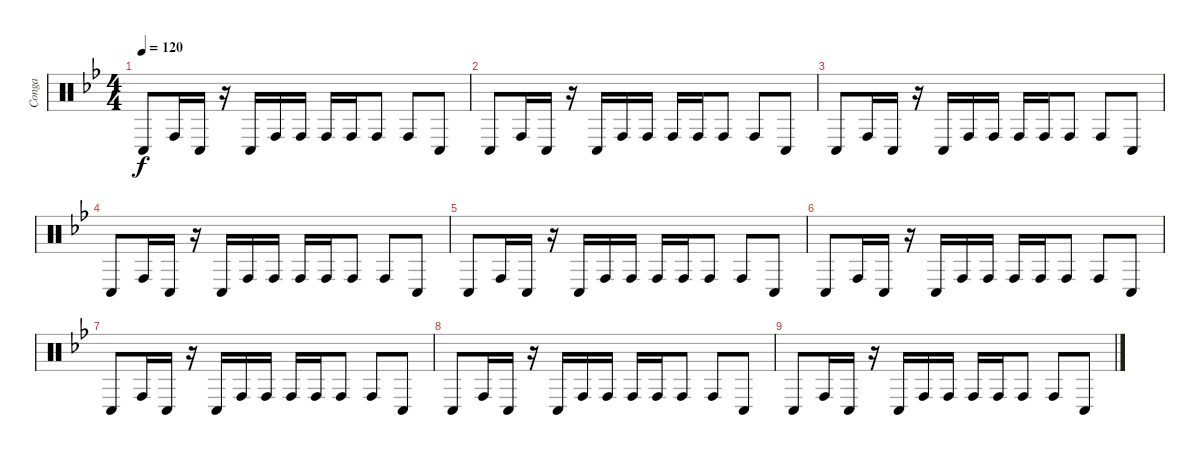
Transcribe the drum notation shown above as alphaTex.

\track ("Conga" "Conga") {instrument percussion}
\staff {score}
\articulation defaults
\ts (4 4)
\tempo 120
\clef neutral
\ks bb "Conga low (hit)".8{dy f} "Conga high (hit)".16 "Conga low (hit)".16
r.16 "Conga low (hit)".16 "Conga high (hit)".16 "Conga high (hit)".16 "Conga high (hit)".16 "Conga high (hit)".16 "Conga high (hit)".8 "Conga high (hit)".8 "Conga low (hit)".8 |
"Conga low (hit)".8 "Conga high (hit)".16 "Conga low (hit)".16 r.16 "Conga low (hit)".16 "Conga high (hit)".16 "Conga high (hit)".16 "Conga high (hit)".16 "Conga high (hit)".16 "Conga high (hit)".8 "Conga high (hit)".8 "Conga low (hit)".8 |
"Conga low (hit)".8 "Conga high (hit)".16 "Conga low (hit)".16 r.16 "Conga low (hit)".16 "Conga high (hit)".16 "Conga high (hit)".16 "Conga high (hit)".16 "Conga high (hit)".16 "Conga high (hit)".8 "Conga high (hit)".8 "Conga low (hit)".8 |
"Conga low (hit)".8 "Conga high (hit)".16 "Conga low (hit)".16 r.16 "Conga low (hit)".16 "Conga high (hit)".16 "Conga high (hit)".16 "Conga high (hit)".16 "Conga high (hit)".16 "Conga high (hit)".8 "Conga high (hit)".8 "Conga low (hit)".8 |
"Conga low (hit)".8 "Conga high (hit)".16 "Conga low (hit)".16 r.16 "Conga low (hit)".16 "Conga high (hit)".16 "Conga high (hit)".16 "Conga high (hit)".16 "Conga high (hit)".16 "Conga high (hit)".8 "Conga high (hit)".8 "Conga low (hit)".8 |
"Conga low (hit)".8 "Conga high (hit)".16 "Conga low (hit)".16 r.16 "Conga low (hit)".16 "Conga high (hit)".16 "Conga high (hit)".16 "Conga high (hit)".16 "Conga high (hit)".16 "Conga high (hit)".8 "Conga high (hit)".8 "Conga low (hit)".8 |
"Conga low (hit)".8 "Conga high (hit)".16 "Conga low (hit)".16 r.16 "Conga low (hit)".16 "Conga high (hit)".16 "Conga high (hit)".16 "Conga high (hit)".16 "Conga high (hit)".16 "Conga high (hit)".8 "Conga high (hit)".8 "Conga low (hit)".8 |
"Conga low (hit)".8 "Conga high (hit)".16 "Conga low (hit)".16 r.16 "Conga low (hit)".16 "Conga high (hit)".16 "Conga high (hit)".16 "Conga high (hit)".16 "Conga high (hit)".16 "Conga high (hit)".8 "Conga high (hit)".8 "Conga low (hit)".8 |
"Conga low (hit)".8 "Conga high (hit)".16 "Conga low (hit)".16 r.16 "Conga low (hit)".16 "Conga high (hit)".16 "Conga high (hit)".16 "Conga high (hit)".16 "Conga high (hit)".16 "Conga high (hit)".8 "Conga high (hit)".8 "Conga low (hit)".8
